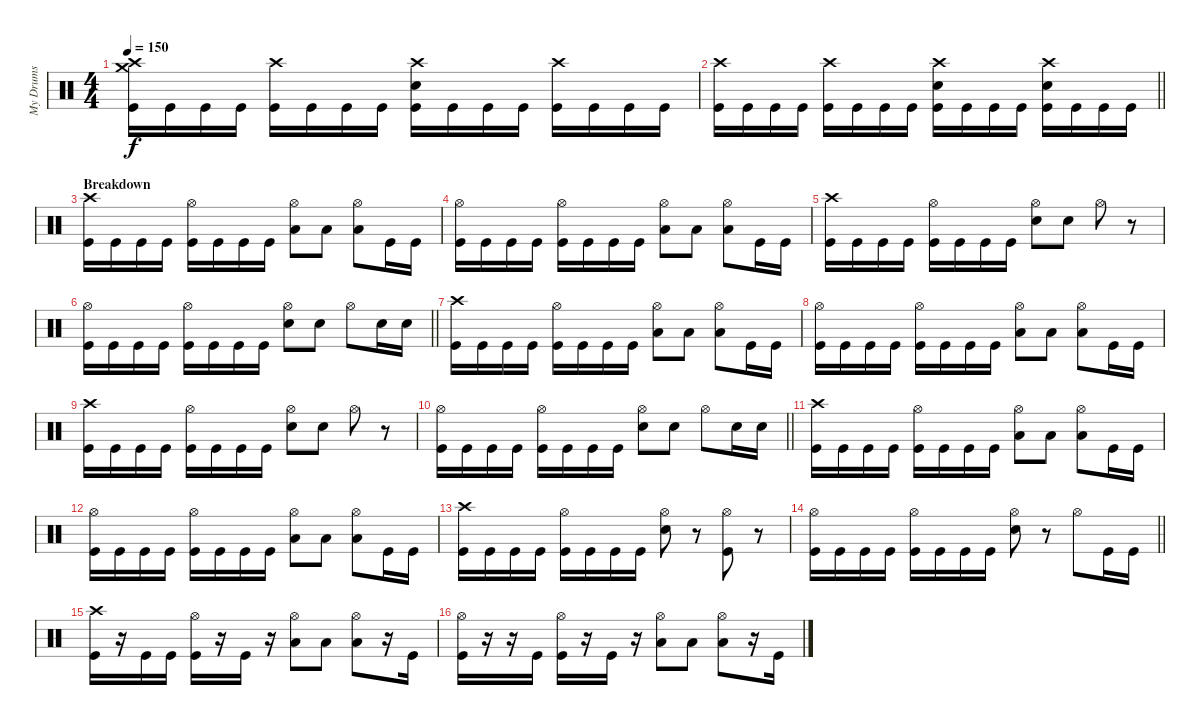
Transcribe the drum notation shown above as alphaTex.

\track ("My Drums" "My Drums") {instrument percussion}
\staff {score}
\articulation defaults
\ts (4 4)
\tempo 150
\clef neutral
\ks c
("Crash high (hit)" "Crash medium (hit)" "Kick (hit)").16{dy f} "Kick (hit)".16 "Kick (hit)".16 "Kick (hit)".16 ("Crash high (hit)" "Kick (hit)").16 "Kick (hit)".16 "Kick (hit)".16 "Kick (hit)".16 ("Crash high (hit)" "Snare (hit) 2" "Kick (hit)").16 "Kick (hit)".16 "Kick (hit)".16 "Kick (hit)".16 ("Crash high (hit)" "Kick (hit)").16 "Kick (hit)".16 "Kick (hit)".16 "Kick (hit)".16 |
\barLineRight lightlight
("Crash high (hit)" "Kick (hit)").16 "Kick (hit)".16 "Kick (hit)".16 "Kick (hit)".16 ("Crash high (hit)" "Kick (hit)").16 "Kick (hit)".16 "Kick (hit)".16 "Kick (hit)".16 ("Crash high (hit)" "Snare (hit) 2" "Kick (hit)").16 "Kick (hit)".16 "Kick (hit)".16 "Kick (hit)".16 ("Crash high (hit)" "Snare (hit) 2" "Kick (hit)").16 "Kick (hit)".16 "Kick (hit)".16 "Kick (hit)".16 |
\section ("" "Breakdown")
("Crash high (hit)" "Kick (hit)").16 "Kick (hit)".16 "Kick (hit)".16 "Kick (hit)".16 ("Hi-Hat (open)" "Kick (hit)").16 "Kick (hit)".16 "Kick (hit)".16 "Kick (hit)".16 ("Hi-Hat (open)" "Low Floor Tom (hit)").8 "Low Floor Tom (hit)".8 ("Hi-Hat (open)" "Low Floor Tom (hit)").8 "Kick (hit)".16 "Kick (hit)".16 |
("Hi-Hat (open)" "Kick (hit)").16 "Kick (hit)".16 "Kick (hit)".16 "Kick (hit)".16 ("Hi-Hat (open)" "Kick (hit)").16 "Kick (hit)".16 "Kick (hit)".16 "Kick (hit)".16 ("Hi-Hat (open)" "Low Floor Tom (hit)").8 "Low Floor Tom (hit)".8 ("Hi-Hat (open)" "Low Floor Tom (hit)").8 "Kick (hit)".16 "Kick (hit)".16 |
("Crash high (hit)" "Kick (hit)").16 "Kick (hit)".16 "Kick (hit)".16 "Kick (hit)".16 ("Hi-Hat (open)" "Kick (hit)").16 "Kick (hit)".16 "Kick (hit)".16 "Kick (hit)".16 ("Hi-Hat (open)" "Snare (hit) 2").8 "Snare (hit) 2".8 "Hi-Hat (open)".8 r.8 |
\barLineRight lightlight
("Hi-Hat (open)" "Kick (hit)").16 "Kick (hit)".16 "Kick (hit)".16 "Kick (hit)".16 ("Hi-Hat (open)" "Kick (hit)").16 "Kick (hit)".16 "Kick (hit)".16 "Kick (hit)".16 ("Hi-Hat (open)" "Snare (hit) 2").8 "Snare (hit) 2".8 "Hi-Hat (open)".8 "Snare (hit) 2".16 "Snare (hit) 2".16 |
("Crash high (hit)" "Kick (hit)").16 "Kick (hit)".16 "Kick (hit)".16 "Kick (hit)".16 ("Hi-Hat (open)" "Kick (hit)").16 "Kick (hit)".16 "Kick (hit)".16 "Kick (hit)".16 ("Hi-Hat (open)" "Low Floor Tom (hit)").8 "Low Floor Tom (hit)".8 ("Hi-Hat (open)" "Low Floor Tom (hit)").8 "Kick (hit)".16 "Kick (hit)".16 |
("Hi-Hat (open)" "Kick (hit)").16 "Kick (hit)".16 "Kick (hit)".16 "Kick (hit)".16 ("Hi-Hat (open)" "Kick (hit)").16 "Kick (hit)".16 "Kick (hit)".16 "Kick (hit)".16 ("Hi-Hat (open)" "Low Floor Tom (hit)").8 "Low Floor Tom (hit)".8 ("Hi-Hat (open)" "Low Floor Tom (hit)").8 "Kick (hit)".16 "Kick (hit)".16 |
("Crash high (hit)" "Kick (hit)").16 "Kick (hit)".16 "Kick (hit)".16 "Kick (hit)".16 ("Hi-Hat (open)" "Kick (hit)").16 "Kick (hit)".16 "Kick (hit)".16 "Kick (hit)".16 ("Hi-Hat (open)" "Snare (hit) 2").8 "Snare (hit) 2".8 "Hi-Hat (open)".8 r.8 |
\barLineRight lightlight
("Hi-Hat (open)" "Kick (hit)").16 "Kick (hit)".16 "Kick (hit)".16 "Kick (hit)".16 ("Hi-Hat (open)" "Kick (hit)").16 "Kick (hit)".16 "Kick (hit)".16 "Kick (hit)".16 ("Hi-Hat (open)" "Snare (hit) 2").8 "Snare (hit) 2".8 "Hi-Hat (open)".8 "Snare (hit) 2".16 "Snare (hit) 2".16 |
("Crash high (hit)" "Kick (hit)").16 "Kick (hit)".16 "Kick (hit)".16 "Kick (hit)".16 ("Hi-Hat (open)" "Kick (hit)").16 "Kick (hit)".16 "Kick (hit)".16 "Kick (hit)".16 ("Hi-Hat (open)" "Low Floor Tom (hit)").8 "Low Floor Tom (hit)".8 ("Hi-Hat (open)" "Low Floor Tom (hit)").8 "Kick (hit)".16 "Kick (hit)".16 |
("Hi-Hat (open)" "Kick (hit)").16 "Kick (hit)".16 "Kick (hit)".16 "Kick (hit)".16 ("Hi-Hat (open)" "Kick (hit)").16 "Kick (hit)".16 "Kick (hit)".16 "Kick (hit)".16 ("Hi-Hat (open)" "Low Floor Tom (hit)").8 "Low Floor Tom (hit)".8 ("Hi-Hat (open)" "Low Floor Tom (hit)").8 "Kick (hit)".16 "Kick (hit)".16 |
("Crash high (hit)" "Kick (hit)").16 "Kick (hit)".16 "Kick (hit)".16 "Kick (hit)".16 ("Hi-Hat (open)" "Kick (hit)").16 "Kick (hit)".16 "Kick (hit)".16 "Kick (hit)".16 ("Hi-Hat (open)" "Snare (hit) 2").8 r.8 ("Hi-Hat (open)" "Kick (hit)").8 r.8 |
\barLineRight lightlight
("Hi-Hat (open)" "Kick (hit)").16 "Kick (hit)".16 "Kick (hit)".16 "Kick (hit)".16 ("Hi-Hat (open)" "Kick (hit)").16 "Kick (hit)".16 "Kick (hit)".16 "Kick (hit)".16 ("Hi-Hat (open)" "Snare (hit) 2").8 r.8 "Hi-Hat (open)".8 "Kick (hit)".16 "Kick (hit)".16 |
("Crash high (hit)" "Kick (hit)").16 r.16 "Kick (hit)".16 "Kick (hit)".16 ("Hi-Hat (open)" "Kick (hit)").16 r.16 "Kick (hit)".16 r.16 ("Hi-Hat (open)" "Low Floor Tom (hit)").8 "Low Floor Tom (hit)".8 ("Hi-Hat (open)" "Low Floor Tom (hit)").8 r.16 "Kick (hit)".16 |
("Hi-Hat (open)" "Kick (hit)").16 r.16 r.16 "Kick (hit)".16 ("Hi-Hat (open)" "Kick (hit)").16 r.16 "Kick (hit)".16 r.16 ("Hi-Hat (open)" "Low Floor Tom (hit)").8 "Low Floor Tom (hit)".8 ("Hi-Hat (open)" "Low Floor Tom (hit)").8 r.16 "Kick (hit)".16
